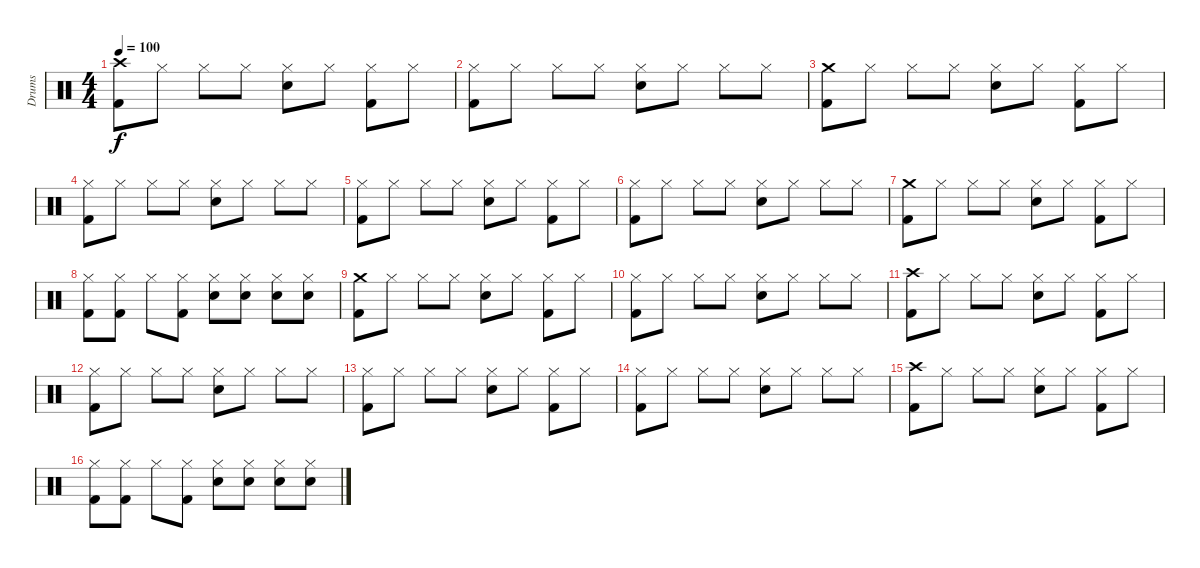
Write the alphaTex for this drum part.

\track ("Drums" "Drums") {instrument percussion}
\staff {score}
\articulation defaults
\ts (4 4)
\tempo 100
\clef neutral
\ks c
("Kick (hit) 2" "Crash high (hit)").8{dy f} "Hi-Hat (closed)".8 "Hi-Hat (closed)".8 "Hi-Hat (closed)".8 ("Hi-Hat (closed)" "Snare (hit) 2").8 "Hi-Hat (closed)".8 ("Kick (hit) 2" "Hi-Hat (closed)").8 "Hi-Hat (closed)".8 |
("Kick (hit) 2" "Hi-Hat (closed)").8 "Hi-Hat (closed)".8 "Hi-Hat (closed)".8 "Hi-Hat (closed)".8 ("Hi-Hat (closed)" "Snare (hit) 2").8 "Hi-Hat (closed)".8 "Hi-Hat (closed)".8 "Hi-Hat (closed)".8 |
("Kick (hit) 2" "Crash medium (hit)").8 "Hi-Hat (closed)".8 "Hi-Hat (closed)".8 "Hi-Hat (closed)".8 ("Hi-Hat (closed)" "Snare (hit) 2").8 "Hi-Hat (closed)".8 ("Kick (hit) 2" "Hi-Hat (closed)").8 "Hi-Hat (closed)".8 |
("Kick (hit) 2" "Hi-Hat (closed)").8 "Hi-Hat (closed)".8 "Hi-Hat (closed)".8 "Hi-Hat (closed)".8 ("Hi-Hat (closed)" "Snare (hit) 2").8 "Hi-Hat (closed)".8 "Hi-Hat (closed)".8 "Hi-Hat (closed)".8 |
("Kick (hit) 2" "Hi-Hat (closed)").8 "Hi-Hat (closed)".8 "Hi-Hat (closed)".8 "Hi-Hat (closed)".8 ("Hi-Hat (closed)" "Snare (hit) 2").8 "Hi-Hat (closed)".8 ("Kick (hit) 2" "Hi-Hat (closed)").8 "Hi-Hat (closed)".8 |
("Kick (hit) 2" "Hi-Hat (closed)").8 "Hi-Hat (closed)".8 "Hi-Hat (closed)".8 "Hi-Hat (closed)".8 ("Hi-Hat (closed)" "Snare (hit) 2").8 "Hi-Hat (closed)".8 "Hi-Hat (closed)".8 "Hi-Hat (closed)".8 |
("Kick (hit) 2" "Crash medium (hit)").8 "Hi-Hat (closed)".8 "Hi-Hat (closed)".8 "Hi-Hat (closed)".8 ("Hi-Hat (closed)" "Snare (hit) 2").8 "Hi-Hat (closed)".8 ("Kick (hit) 2" "Hi-Hat (closed)").8 "Hi-Hat (closed)".8 |
("Kick (hit) 2" "Hi-Hat (closed)").8 ("Kick (hit) 2" "Hi-Hat (closed)").8 "Hi-Hat (closed)".8 ("Kick (hit) 2" "Hi-Hat (closed)").8 ("Hi-Hat (closed)" "Snare (hit) 2").8 ("Hi-Hat (closed)" "Snare (hit) 2").8 ("Hi-Hat (closed)" "Snare (hit) 2").8 ("Hi-Hat (closed)" "Snare (hit) 2").8 |
("Kick (hit) 2" "Crash medium (hit)").8 "Hi-Hat (closed)".8 "Hi-Hat (closed)".8 "Hi-Hat (closed)".8 ("Hi-Hat (closed)" "Snare (hit) 2").8 "Hi-Hat (closed)".8 ("Kick (hit) 2" "Hi-Hat (closed)").8 "Hi-Hat (closed)".8 |
("Kick (hit) 2" "Hi-Hat (closed)").8 "Hi-Hat (closed)".8 "Hi-Hat (closed)".8 "Hi-Hat (closed)".8 ("Hi-Hat (closed)" "Snare (hit) 2").8 "Hi-Hat (closed)".8 "Hi-Hat (closed)".8 "Hi-Hat (closed)".8 |
("Kick (hit) 2" "Crash high (hit)").8 "Hi-Hat (closed)".8 "Hi-Hat (closed)".8 "Hi-Hat (closed)".8 ("Hi-Hat (closed)" "Snare (hit) 2").8 "Hi-Hat (closed)".8 ("Kick (hit) 2" "Hi-Hat (closed)").8 "Hi-Hat (closed)".8 |
("Kick (hit) 2" "Hi-Hat (closed)").8 "Hi-Hat (closed)".8 "Hi-Hat (closed)".8 "Hi-Hat (closed)".8 ("Hi-Hat (closed)" "Snare (hit) 2").8 "Hi-Hat (closed)".8 "Hi-Hat (closed)".8 "Hi-Hat (closed)".8 |
("Kick (hit) 2" "Hi-Hat (closed)").8 "Hi-Hat (closed)".8 "Hi-Hat (closed)".8 "Hi-Hat (closed)".8 ("Hi-Hat (closed)" "Snare (hit) 2").8 "Hi-Hat (closed)".8 ("Kick (hit) 2" "Hi-Hat (closed)").8 "Hi-Hat (closed)".8 |
("Kick (hit) 2" "Hi-Hat (closed)").8 "Hi-Hat (closed)".8 "Hi-Hat (closed)".8 "Hi-Hat (closed)".8 ("Hi-Hat (closed)" "Snare (hit) 2").8 "Hi-Hat (closed)".8 "Hi-Hat (closed)".8 "Hi-Hat (closed)".8 |
("Kick (hit) 2" "Crash high (hit)").8 "Hi-Hat (closed)".8 "Hi-Hat (closed)".8 "Hi-Hat (closed)".8 ("Hi-Hat (closed)" "Snare (hit) 2").8 "Hi-Hat (closed)".8 ("Kick (hit) 2" "Hi-Hat (closed)").8 "Hi-Hat (closed)".8 |
("Kick (hit) 2" "Hi-Hat (closed)").8 ("Kick (hit) 2" "Hi-Hat (closed)").8 "Hi-Hat (closed)".8 ("Kick (hit) 2" "Hi-Hat (closed)").8 ("Hi-Hat (closed)" "Snare (hit) 2").8 ("Hi-Hat (closed)" "Snare (hit) 2").8 ("Hi-Hat (closed)" "Snare (hit) 2").8 ("Hi-Hat (closed)" "Snare (hit) 2").8
